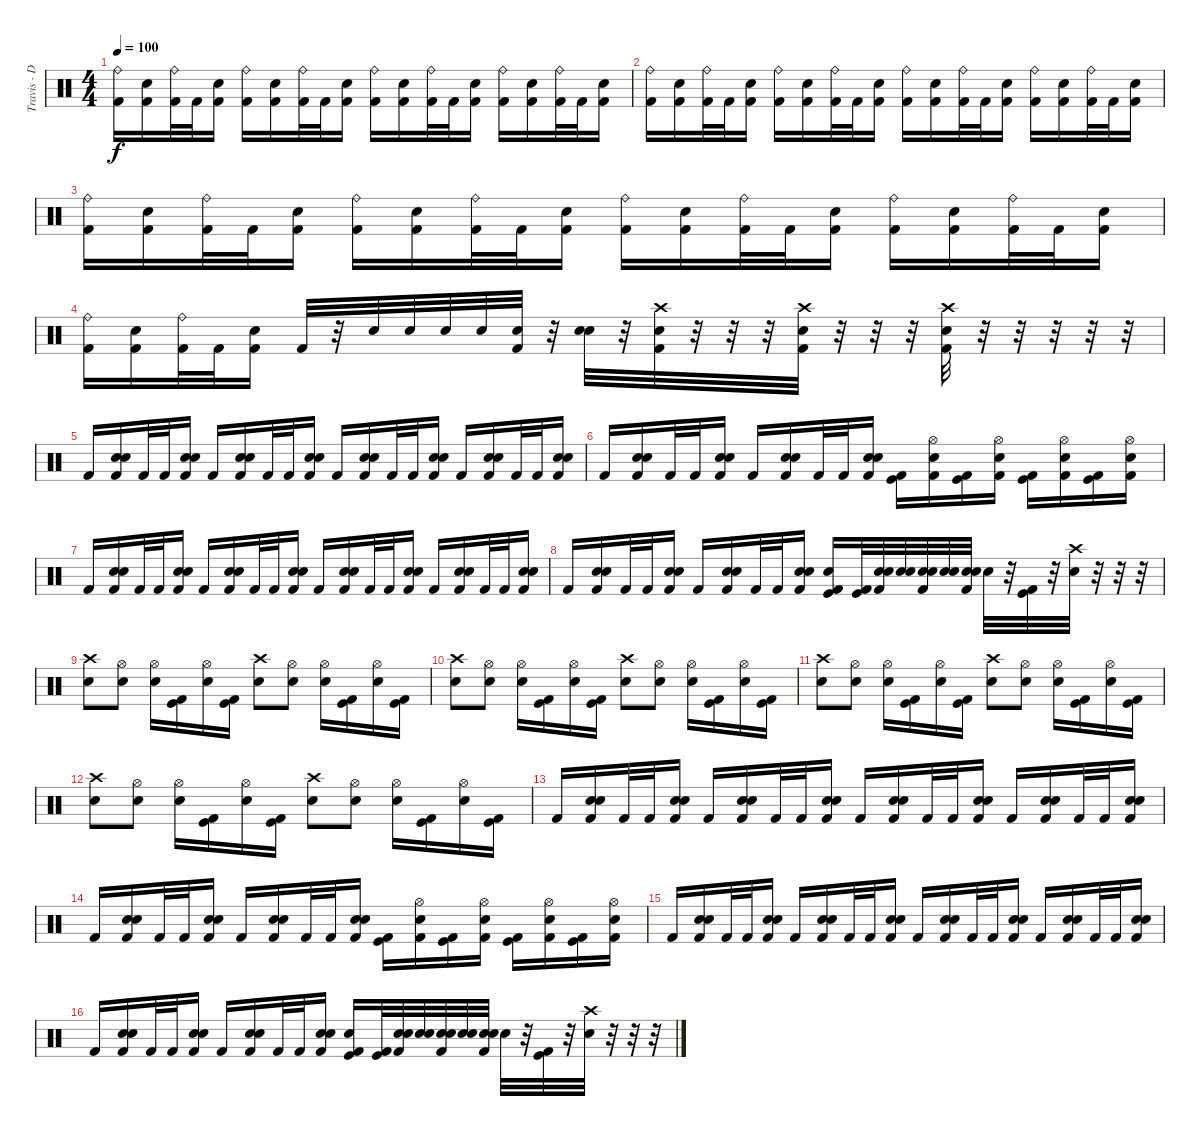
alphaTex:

\track ("Travis - Drums {Tabbed by Peter B.}" "Travis - D") {instrument percussion}
\staff {score}
\articulation defaults
\ts (4 4)
\tempo 100
\clef neutral
\ks c
("Ride (bell)" "Kick (hit) 2").16{dy f} ("Electric Snare (hit)" "Kick (hit) 2").16 ("Ride (bell)" "Kick (hit) 2").32 "Kick (hit) 2".32 ("Electric Snare (hit)" "Kick (hit) 2").16 ("Ride (bell)" "Kick (hit) 2").16 ("Electric Snare (hit)" "Kick (hit) 2").16 ("Ride (bell)" "Kick (hit) 2").32 "Kick (hit) 2".32 ("Electric Snare (hit)" "Kick (hit) 2").16 ("Ride (bell)" "Kick (hit) 2").16 ("Electric Snare (hit)" "Kick (hit) 2").16 ("Ride (bell)" "Kick (hit) 2").32 "Kick (hit) 2".32 ("Electric Snare (hit)" "Kick (hit) 2").16 ("Ride (bell)" "Kick (hit) 2").16 ("Electric Snare (hit)" "Kick (hit) 2").16 ("Ride (bell)" "Kick (hit) 2").32 "Kick (hit) 2".32 ("Electric Snare (hit)" "Kick (hit) 2").16 |
("Ride (bell)" "Kick (hit) 2").16 ("Electric Snare (hit)" "Kick (hit) 2").16 ("Ride (bell)" "Kick (hit) 2").32 "Kick (hit) 2".32 ("Electric Snare (hit)" "Kick (hit) 2").16 ("Ride (bell)" "Kick (hit) 2").16 ("Electric Snare (hit)" "Kick (hit) 2").16 ("Ride (bell)" "Kick (hit) 2").32 "Kick (hit) 2".32 ("Electric Snare (hit)" "Kick (hit) 2").16 ("Ride (bell)" "Kick (hit) 2").16 ("Electric Snare (hit)" "Kick (hit) 2").16 ("Ride (bell)" "Kick (hit) 2").32 "Kick (hit) 2".32 ("Electric Snare (hit)" "Kick (hit) 2").16 ("Ride (bell)" "Kick (hit) 2").16 ("Electric Snare (hit)" "Kick (hit) 2").16 ("Ride (bell)" "Kick (hit) 2").32 "Kick (hit) 2".32 ("Electric Snare (hit)" "Kick (hit) 2").16 |
("Ride (bell)" "Kick (hit) 2").16 ("Electric Snare (hit)" "Kick (hit) 2").16 ("Ride (bell)" "Kick (hit) 2").32 "Kick (hit) 2".32 ("Electric Snare (hit)" "Kick (hit) 2").16 ("Ride (bell)" "Kick (hit) 2").16 ("Electric Snare (hit)" "Kick (hit) 2").16 ("Ride (bell)" "Kick (hit) 2").32 "Kick (hit) 2".32 ("Electric Snare (hit)" "Kick (hit) 2").16 ("Ride (bell)" "Kick (hit) 2").16 ("Electric Snare (hit)" "Kick (hit) 2").16 ("Ride (bell)" "Kick (hit) 2").32 "Kick (hit) 2".32 ("Electric Snare (hit)" "Kick (hit) 2").16 ("Ride (bell)" "Kick (hit) 2").16 ("Electric Snare (hit)" "Kick (hit) 2").16 ("Ride (bell)" "Kick (hit) 2").32 "Kick (hit) 2".32 ("Electric Snare (hit)" "Kick (hit) 2").16 |
("Ride (bell)" "Kick (hit) 2").16 ("Electric Snare (hit)" "Kick (hit) 2").16 ("Ride (bell)" "Kick (hit) 2").32 "Kick (hit) 2".32 ("Electric Snare (hit)" "Kick (hit) 2").16 "Kick (hit) 2".32 r.32 "Electric Snare (hit)".32 "Electric Snare (hit)".32 "Electric Snare (hit)".32 "Electric Snare (hit)".32 ("Electric Snare (hit)" "Kick (hit) 2").32 r.32 ("Electric Snare (hit)" "Electric Snare (hit)").32 r.32 ("Crash high (hit)" "Electric Snare (hit)" "Kick (hit) 2").32 r.32 r.32 r.32 ("Crash high (hit)" "Electric Snare (hit)" "Kick (hit) 2").32 r.32 r.32 r.32 ("Crash high (hit)" "Electric Snare (hit)" "Kick (hit) 2").32 r.32 r.32 r.32 r.32 r.32 |
"Kick (hit) 2".16 ("Electric Snare (hit)" "Snare (hit) 2" "Kick (hit) 2").16 "Kick (hit) 2".32 "Kick (hit) 2".32 ("Electric Snare (hit)" "Snare (hit) 2" "Kick (hit) 2").16 "Kick (hit) 2".16 ("Electric Snare (hit)" "Snare (hit) 2" "Kick (hit) 2").16 "Kick (hit) 2".32 "Kick (hit) 2".32 ("Electric Snare (hit)" "Snare (hit) 2" "Kick (hit) 2").16 "Kick (hit) 2".16 ("Electric Snare (hit)" "Snare (hit) 2" "Kick (hit) 2").16 "Kick (hit) 2".32 "Kick (hit) 2".32 ("Electric Snare (hit)" "Snare (hit) 2" "Kick (hit) 2").16 "Kick (hit) 2".16 ("Electric Snare (hit)" "Snare (hit) 2" "Kick (hit) 2").16 "Kick (hit) 2".32 "Kick (hit) 2".32 ("Electric Snare (hit)" "Snare (hit) 2" "Kick (hit) 2").16 |
"Kick (hit) 2".16 ("Electric Snare (hit)" "Snare (hit) 2" "Kick (hit) 2").16 "Kick (hit) 2".32 "Kick (hit) 2".32 ("Electric Snare (hit)" "Snare (hit) 2" "Kick (hit) 2").16 "Kick (hit) 2".16 ("Electric Snare (hit)" "Snare (hit) 2" "Kick (hit) 2").16 "Kick (hit) 2".32 "Kick (hit) 2".32 ("Electric Snare (hit)" "Snare (hit) 2" "Kick (hit) 2").16 ("Kick (hit)" "Kick (hit) 2").16 ("Hi-Hat (open)" "Snare (hit) 2" "Kick (hit) 2").16 ("Kick (hit)" "Kick (hit) 2").16 ("Hi-Hat (open)" "Snare (hit) 2" "Kick (hit) 2").16 ("Kick (hit)" "Kick (hit) 2").16 ("Hi-Hat (open)" "Snare (hit) 2" "Kick (hit) 2").16 ("Kick (hit)" "Kick (hit) 2").16 ("Hi-Hat (open)" "Snare (hit) 2" "Kick (hit) 2").16 |
"Kick (hit) 2".16 ("Electric Snare (hit)" "Snare (hit) 2" "Kick (hit) 2").16 "Kick (hit) 2".32 "Kick (hit) 2".32 ("Electric Snare (hit)" "Snare (hit) 2" "Kick (hit) 2").16 "Kick (hit) 2".16 ("Electric Snare (hit)" "Snare (hit) 2" "Kick (hit) 2").16 "Kick (hit) 2".32 "Kick (hit) 2".32 ("Electric Snare (hit)" "Snare (hit) 2" "Kick (hit) 2").16 "Kick (hit) 2".16 ("Electric Snare (hit)" "Snare (hit) 2" "Kick (hit) 2").16 "Kick (hit) 2".32 "Kick (hit) 2".32 ("Electric Snare (hit)" "Snare (hit) 2" "Kick (hit) 2").16 "Kick (hit) 2".16 ("Electric Snare (hit)" "Snare (hit) 2" "Kick (hit) 2").16 "Kick (hit) 2".32 "Kick (hit) 2".32 ("Electric Snare (hit)" "Snare (hit) 2" "Kick (hit) 2").16 |
"Kick (hit) 2".16 ("Electric Snare (hit)" "Snare (hit) 2" "Kick (hit) 2").16 "Kick (hit) 2".32 "Kick (hit) 2".32 ("Electric Snare (hit)" "Snare (hit) 2" "Kick (hit) 2").16 "Kick (hit) 2".16 ("Electric Snare (hit)" "Snare (hit) 2" "Kick (hit) 2").16 "Kick (hit) 2".32 "Kick (hit) 2".32 ("Electric Snare (hit)" "Snare (hit) 2" "Kick (hit) 2").16 ("Electric Snare (hit)" "Kick (hit)" "Kick (hit) 2").16 ("Kick (hit)" "Kick (hit) 2").32 ("Snare (hit) 2" "Electric Snare (hit)" "Kick (hit) 2").32 ("Snare (hit) 2" "Electric Snare (hit)").32 ("Snare (hit) 2" "Electric Snare (hit)" "Kick (hit) 2").32 ("Snare (hit) 2" "Electric Snare (hit)").32 ("Snare (hit) 2" "Electric Snare (hit)" "Kick (hit) 2").32 "Electric Snare (hit)".32 r.32 ("Kick (hit) 2" "Kick (hit)").32 r.32 ("Crash high (hit)" "Electric Snare (hit)").32 r.32 r.32 r.32 |
("Crash high (hit)" "Electric Snare (hit)").8 ("Hi-Hat (open)" "Electric Snare (hit)").8 ("Hi-Hat (open)" "Electric Snare (hit)").16 ("Kick (hit)" "Kick (hit) 2").16 ("Hi-Hat (open)" "Electric Snare (hit)").16 ("Kick (hit)" "Kick (hit) 2").16 ("Crash high (hit)" "Electric Snare (hit)").8 ("Hi-Hat (open)" "Electric Snare (hit)").8 ("Hi-Hat (open)" "Electric Snare (hit)").16 ("Kick (hit)" "Kick (hit) 2").16 ("Hi-Hat (open)" "Electric Snare (hit)").16 ("Kick (hit)" "Kick (hit) 2").16 |
("Crash high (hit)" "Electric Snare (hit)").8 ("Hi-Hat (open)" "Electric Snare (hit)").8 ("Hi-Hat (open)" "Electric Snare (hit)").16 ("Kick (hit)" "Kick (hit) 2").16 ("Hi-Hat (open)" "Electric Snare (hit)").16 ("Kick (hit)" "Kick (hit) 2").16 ("Crash high (hit)" "Electric Snare (hit)").8 ("Hi-Hat (open)" "Electric Snare (hit)").8 ("Hi-Hat (open)" "Electric Snare (hit)").16 ("Kick (hit)" "Kick (hit) 2").16 ("Hi-Hat (open)" "Electric Snare (hit)").16 ("Kick (hit)" "Kick (hit) 2").16 |
("Crash high (hit)" "Electric Snare (hit)").8 ("Hi-Hat (open)" "Electric Snare (hit)").8 ("Hi-Hat (open)" "Electric Snare (hit)").16 ("Kick (hit)" "Kick (hit) 2").16 ("Hi-Hat (open)" "Electric Snare (hit)").16 ("Kick (hit)" "Kick (hit) 2").16 ("Crash high (hit)" "Electric Snare (hit)").8 ("Hi-Hat (open)" "Electric Snare (hit)").8 ("Hi-Hat (open)" "Electric Snare (hit)").16 ("Kick (hit)" "Kick (hit) 2").16 ("Hi-Hat (open)" "Electric Snare (hit)").16 ("Kick (hit)" "Kick (hit) 2").16 |
("Crash high (hit)" "Electric Snare (hit)").8 ("Hi-Hat (open)" "Electric Snare (hit)").8 ("Hi-Hat (open)" "Electric Snare (hit)").16 ("Kick (hit)" "Kick (hit) 2").16 ("Hi-Hat (open)" "Electric Snare (hit)").16 ("Kick (hit)" "Kick (hit) 2").16 ("Crash high (hit)" "Electric Snare (hit)").8 ("Hi-Hat (open)" "Electric Snare (hit)").8 ("Hi-Hat (open)" "Electric Snare (hit)").16 ("Kick (hit)" "Kick (hit) 2").16 ("Hi-Hat (open)" "Electric Snare (hit)").16 ("Kick (hit)" "Kick (hit) 2").16 |
"Kick (hit) 2".16 ("Electric Snare (hit)" "Snare (hit) 2" "Kick (hit) 2").16 "Kick (hit) 2".32 "Kick (hit) 2".32 ("Electric Snare (hit)" "Snare (hit) 2" "Kick (hit) 2").16 "Kick (hit) 2".16 ("Electric Snare (hit)" "Snare (hit) 2" "Kick (hit) 2").16 "Kick (hit) 2".32 "Kick (hit) 2".32 ("Electric Snare (hit)" "Snare (hit) 2" "Kick (hit) 2").16 "Kick (hit) 2".16 ("Electric Snare (hit)" "Snare (hit) 2" "Kick (hit) 2").16 "Kick (hit) 2".32 "Kick (hit) 2".32 ("Electric Snare (hit)" "Snare (hit) 2" "Kick (hit) 2").16 "Kick (hit) 2".16 ("Electric Snare (hit)" "Snare (hit) 2" "Kick (hit) 2").16 "Kick (hit) 2".32 "Kick (hit) 2".32 ("Electric Snare (hit)" "Snare (hit) 2" "Kick (hit) 2").16 |
"Kick (hit) 2".16 ("Electric Snare (hit)" "Snare (hit) 2" "Kick (hit) 2").16 "Kick (hit) 2".32 "Kick (hit) 2".32 ("Electric Snare (hit)" "Snare (hit) 2" "Kick (hit) 2").16 "Kick (hit) 2".16 ("Electric Snare (hit)" "Snare (hit) 2" "Kick (hit) 2").16 "Kick (hit) 2".32 "Kick (hit) 2".32 ("Electric Snare (hit)" "Snare (hit) 2" "Kick (hit) 2").16 ("Kick (hit)" "Kick (hit) 2").16 ("Hi-Hat (open)" "Snare (hit) 2" "Kick (hit) 2").16 ("Kick (hit)" "Kick (hit) 2").16 ("Hi-Hat (open)" "Snare (hit) 2" "Kick (hit) 2").16 ("Kick (hit)" "Kick (hit) 2").16 ("Hi-Hat (open)" "Snare (hit) 2" "Kick (hit) 2").16 ("Kick (hit)" "Kick (hit) 2").16 ("Hi-Hat (open)" "Snare (hit) 2" "Kick (hit) 2").16 |
"Kick (hit) 2".16 ("Electric Snare (hit)" "Snare (hit) 2" "Kick (hit) 2").16 "Kick (hit) 2".32 "Kick (hit) 2".32 ("Electric Snare (hit)" "Snare (hit) 2" "Kick (hit) 2").16 "Kick (hit) 2".16 ("Electric Snare (hit)" "Snare (hit) 2" "Kick (hit) 2").16 "Kick (hit) 2".32 "Kick (hit) 2".32 ("Electric Snare (hit)" "Snare (hit) 2" "Kick (hit) 2").16 "Kick (hit) 2".16 ("Electric Snare (hit)" "Snare (hit) 2" "Kick (hit) 2").16 "Kick (hit) 2".32 "Kick (hit) 2".32 ("Electric Snare (hit)" "Snare (hit) 2" "Kick (hit) 2").16 "Kick (hit) 2".16 ("Electric Snare (hit)" "Snare (hit) 2" "Kick (hit) 2").16 "Kick (hit) 2".32 "Kick (hit) 2".32 ("Electric Snare (hit)" "Snare (hit) 2" "Kick (hit) 2").16 |
"Kick (hit) 2".16 ("Electric Snare (hit)" "Snare (hit) 2" "Kick (hit) 2").16 "Kick (hit) 2".32 "Kick (hit) 2".32 ("Electric Snare (hit)" "Snare (hit) 2" "Kick (hit) 2").16 "Kick (hit) 2".16 ("Electric Snare (hit)" "Snare (hit) 2" "Kick (hit) 2").16 "Kick (hit) 2".32 "Kick (hit) 2".32 ("Electric Snare (hit)" "Snare (hit) 2" "Kick (hit) 2").16 ("Electric Snare (hit)" "Kick (hit)" "Kick (hit) 2").16 ("Kick (hit)" "Kick (hit) 2").32 ("Snare (hit) 2" "Electric Snare (hit)" "Kick (hit) 2").32 ("Snare (hit) 2" "Electric Snare (hit)").32 ("Snare (hit) 2" "Electric Snare (hit)" "Kick (hit) 2").32 ("Snare (hit) 2" "Electric Snare (hit)").32 ("Snare (hit) 2" "Electric Snare (hit)" "Kick (hit) 2").32 "Electric Snare (hit)".32 r.32 ("Kick (hit) 2" "Kick (hit)").32 r.32 ("Crash high (hit)" "Electric Snare (hit)").32 r.32 r.32 r.32
